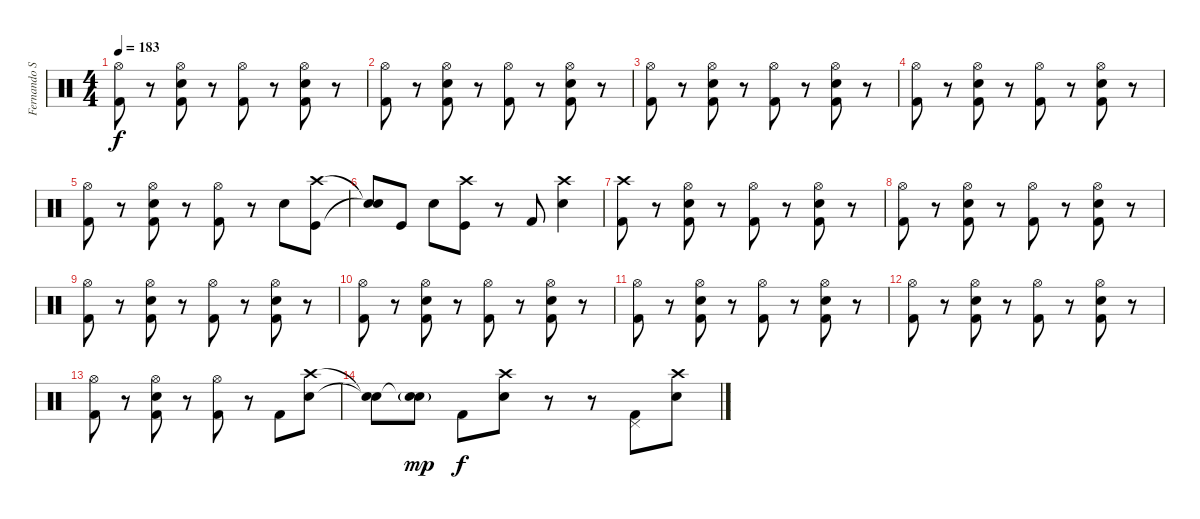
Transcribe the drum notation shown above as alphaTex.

\track ("Fernando Scarcella" "Fernando S") {instrument percussion}
\staff {score}
\articulation defaults
\ts (4 4)
\tempo 183
\clef neutral
\ks c
("Hi-Hat (open)" "Kick (hit) 2").8{dy f} r.8 ("Hi-Hat (open)" "Snare (hit) 2" "Kick (hit) 2").8 r.8 ("Hi-Hat (open)" "Kick (hit) 2").8 r.8 ("Hi-Hat (open)" "Snare (hit) 2" "Kick (hit) 2").8 r.8 |
("Hi-Hat (open)" "Kick (hit) 2").8 r.8 ("Hi-Hat (open)" "Snare (hit) 2" "Kick (hit) 2").8 r.8 ("Hi-Hat (open)" "Kick (hit) 2").8 r.8 ("Hi-Hat (open)" "Snare (hit) 2" "Kick (hit) 2").8 r.8 |
("Hi-Hat (open)" "Kick (hit) 2").8 r.8 ("Hi-Hat (open)" "Snare (hit) 2" "Kick (hit) 2").8 r.8 ("Hi-Hat (open)" "Kick (hit) 2").8 r.8 ("Hi-Hat (open)" "Snare (hit) 2" "Kick (hit) 2").8 r.8 |
("Hi-Hat (open)" "Kick (hit) 2").8 r.8 ("Hi-Hat (open)" "Snare (hit) 2" "Kick (hit) 2").8 r.8 ("Hi-Hat (open)" "Kick (hit) 2").8 r.8 ("Hi-Hat (open)" "Snare (hit) 2" "Kick (hit) 2").8 r.8 |
("Hi-Hat (open)" "Kick (hit) 2").8 r.8 ("Hi-Hat (open)" "Snare (hit) 2" "Kick (hit) 2").8 r.8 ("Hi-Hat (open)" "Kick (hit) 2").8 r.8 "Snare (hit) 2".8 ("Crash high (hit)" "Kick (hit)").8 |
("Snare (hit)"{t} "Snare (hit)"{t}).8 "Kick (hit)".8 "Snare (hit) 2".8 ("Crash high (hit)" "Kick (hit)").8 r.8 "Kick (hit) 2".8 ("Crash high (hit)" "Snare (hit) 2").4 |
("Crash high (hit)" "Kick (hit) 2").8 r.8 ("Hi-Hat (open)" "Snare (hit) 2" "Kick (hit) 2").8 r.8 ("Hi-Hat (open)" "Kick (hit) 2").8 r.8 ("Hi-Hat (open)" "Snare (hit) 2" "Kick (hit) 2").8 r.8{volume 12} |
("Hi-Hat (open)" "Kick (hit) 2").8 r.8 ("Hi-Hat (open)" "Snare (hit) 2" "Kick (hit) 2").8 r.8 ("Hi-Hat (open)" "Kick (hit) 2").8 r.8 ("Hi-Hat (open)" "Snare (hit) 2" "Kick (hit) 2").8 r.8{volume 10} |
("Hi-Hat (open)" "Kick (hit) 2").8 r.8 ("Hi-Hat (open)" "Snare (hit) 2" "Kick (hit) 2").8 r.8 ("Hi-Hat (open)" "Kick (hit) 2").8 r.8 ("Hi-Hat (open)" "Snare (hit) 2" "Kick (hit) 2").8 r.8{volume 8} |
("Hi-Hat (open)" "Kick (hit) 2").8 r.8 ("Hi-Hat (open)" "Snare (hit) 2" "Kick (hit) 2").8 r.8 ("Hi-Hat (open)" "Kick (hit) 2").8 r.8 ("Hi-Hat (open)" "Snare (hit) 2" "Kick (hit) 2").8{volume 6} r.8 |
("Hi-Hat (open)" "Kick (hit) 2").8 r.8 ("Hi-Hat (open)" "Snare (hit) 2" "Kick (hit) 2").8 r.8 ("Hi-Hat (open)" "Kick (hit) 2").8 r.8 ("Hi-Hat (open)" "Snare (hit) 2" "Kick (hit) 2").8 r.8{volume 4} |
("Hi-Hat (open)" "Kick (hit) 2").8 r.8 ("Hi-Hat (open)" "Snare (hit) 2" "Kick (hit) 2").8 r.8 ("Hi-Hat (open)" "Kick (hit) 2").8 r.8 ("Hi-Hat (open)" "Snare (hit) 2" "Kick (hit) 2").8 r.8{volume 3} |
("Hi-Hat (open)" "Kick (hit) 2").8 r.8 ("Hi-Hat (open)" "Snare (hit) 2" "Kick (hit) 2").8 r.8 ("Hi-Hat (open)" "Kick (hit) 2").8 r.8 "Kick (hit) 2".8 ("Crash high (hit)" "Snare (hit) 2").8{volume 1} |
("Snare (hit)"{t} "Snare (hit)"{t}).8 ("Snare (hit)"{t} "Snare (hit) 2"{g}).8{dy mp} "Kick (hit) 2".8{dy f} ("Crash high (hit)" "Snare (hit) 2").8 r.8 r.8 ("Pedal Hi-Hat (hit)" "Kick (hit) 2").8 ("Crash high (hit)" "Snare (hit) 2").8{volume 0}
